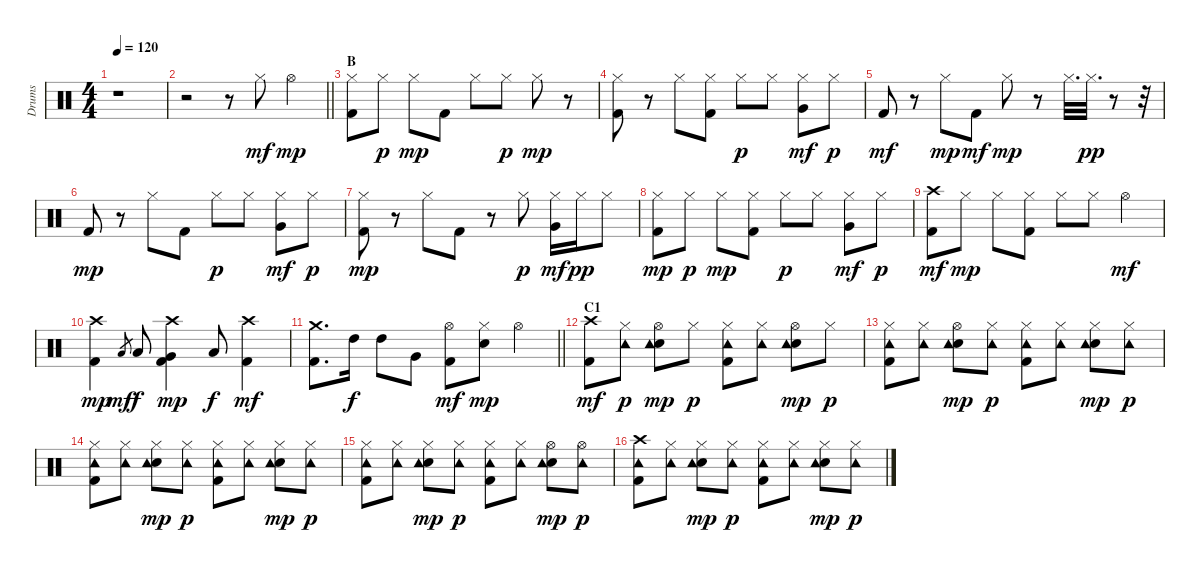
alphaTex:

\track ("Drums" "Drums") {instrument percussion}
\staff {score}
\articulation defaults
\ts (4 4)
\tempo 120
\clef neutral
\ks c
r.1{dy mf} |
\barLineRight lightlight
r.2 r.8 "Hi-Hat (closed)".8 "Hi-Hat (open)".4{dy mp} |
\section ("" "B")
("Hi-Hat (closed)" "Kick (hit) 2").8 "Hi-Hat (closed)".8{dy p} "Hi-Hat (closed)".8{dy mp} "Kick (hit) 2".8 "Hi-Hat (closed)".8 "Hi-Hat (closed)".8{dy p} "Hi-Hat (closed)".8{dy mp} r.8 |
("Hi-Hat (closed)" "Kick (hit) 2").8 r.8 "Hi-Hat (closed)".8 ("Hi-Hat (closed)" "Kick (hit) 2").8 "Hi-Hat (closed)".8{dy p} "Hi-Hat (closed)".8 ("Hi-Hat (closed)" "Very Low Tom (hit)").8{dy mf} "Hi-Hat (closed)".8{dy p} |
"Kick (hit) 2".8{dy mf} r.8 "Hi-Hat (closed)".8{dy mp} "Kick (hit) 2".8{dy mf} "Hi-Hat (closed)".8{dy mp} r.8 "Hi-Hat (closed)".32{d} "Hi-Hat (closed)".32{d dy pp} r.8 r.32 |
"Kick (hit) 2".8{dy mp} r.8 "Hi-Hat (closed)".8 "Kick (hit) 2".8 "Hi-Hat (closed)".8{dy p} "Hi-Hat (closed)".8 ("Hi-Hat (closed)" "Very Low Tom (hit)").8{dy mf} "Hi-Hat (closed)".8{dy p} |
("Hi-Hat (closed)" "Kick (hit) 2").8{dy mp} r.8 "Hi-Hat (closed)".8 "Kick (hit) 2".8 r.8 "Hi-Hat (closed)".8{dy p} ("Hi-Hat (closed)" "Very Low Tom (hit)").16{dy mf} "Hi-Hat (closed)".16{dy pp} "Hi-Hat (closed)".8 |
("Hi-Hat (closed)" "Kick (hit) 2").8{dy mp} "Hi-Hat (closed)".8{dy p} "Hi-Hat (closed)".8{dy mp} ("Hi-Hat (closed)" "Kick (hit) 2").8 "Hi-Hat (closed)".8{dy p} "Hi-Hat (closed)".8 ("Hi-Hat (closed)" "Very Low Tom (hit)").8{dy mf} "Hi-Hat (closed)".8{dy p} |
("Crash high (hit)" "Kick (hit) 2").8{dy mf} "Hi-Hat (closed)".8{dy mp} "Hi-Hat (closed)".8 ("Hi-Hat (closed)" "Kick (hit) 2").8 "Hi-Hat (closed)".8 "Hi-Hat (closed)".8 "Hi-Hat (open)".4{dy mf} |
("Crash high (hit)" "Kick (hit) 2").4{dy mp} "Low Tom (hit)".8{gr dy mf} "Low Tom (hit)".8{dy f} ("Crash high (hit)" "Very Low Tom (hit)" "Kick (hit) 2").4{dy mp} "Low Floor Tom (hit)".8{dy f} ("Crash high (hit)" "Kick (hit) 2").4{dy mf} |
\barLineRight lightlight
("Crash medium (hit)" "Kick (hit) 2").8{d} "High Tom (hit)".16{dy f} "High Tom (hit)".8 "Very Low Tom (hit)".8 ("Hi-Hat (open)" "Kick (hit) 2").8{dy mf} ("Hi-Hat (closed)" "Snare (hit) 2").8{dy mp} "Hi-Hat (open)".4 |
\section ("" "C1")
("Crash high (hit)" "Kick (hit) 2").8{dy mf} ("Hi-Hat (closed)" "Tambourine (hit)").8{dy p} ("Hi-Hat (open)" "Snare (hit) 2" "Tambourine (hit)").8{dy mp} "Hi-Hat (closed)".8{dy p} ("Hi-Hat (closed)" "Kick (hit) 2" "Tambourine (hit)").8 ("Hi-Hat (closed)" "Tambourine (hit)").8 ("Hi-Hat (open)" "Snare (hit) 2" "Tambourine (hit)").8{dy mp} "Hi-Hat (closed)".8{dy p} |
("Hi-Hat (closed)" "Kick (hit) 2" "Tambourine (hit)").8 ("Hi-Hat (closed)" "Tambourine (hit)").8 ("Hi-Hat (open)" "Snare (hit) 2" "Tambourine (hit)").8{dy mp} ("Hi-Hat (closed)" "Tambourine (hit)").8{dy p} ("Hi-Hat (closed)" "Kick (hit) 2" "Tambourine (hit)").8 ("Hi-Hat (closed)" "Tambourine (hit)").8 ("Hi-Hat (closed)" "Snare (hit) 2" "Tambourine (hit)").8{dy mp} ("Hi-Hat (closed)" "Tambourine (hit)").8{dy p} |
("Hi-Hat (closed)" "Kick (hit) 2" "Tambourine (hit)").8 ("Hi-Hat (closed)" "Tambourine (hit)").8 ("Hi-Hat (closed)" "Snare (hit) 2" "Tambourine (hit)").8{dy mp} ("Hi-Hat (closed)" "Tambourine (hit)").8{dy p} ("Hi-Hat (closed)" "Kick (hit) 2" "Tambourine (hit)").8 ("Hi-Hat (closed)" "Tambourine (hit)").8 ("Hi-Hat (closed)" "Snare (hit) 2" "Tambourine (hit)").8{dy mp} ("Hi-Hat (closed)" "Tambourine (hit)").8{dy p} |
("Hi-Hat (closed)" "Kick (hit) 2" "Tambourine (hit)").8 ("Hi-Hat (closed)" "Tambourine (hit)").8 ("Hi-Hat (closed)" "Snare (hit) 2" "Tambourine (hit)").8{dy mp} ("Hi-Hat (closed)" "Tambourine (hit)").8{dy p} ("Hi-Hat (closed)" "Kick (hit) 2" "Tambourine (hit)").8 ("Hi-Hat (closed)" "Tambourine (hit)").8 ("Hi-Hat (open)" "Snare (hit) 2" "Tambourine (hit)").8{dy mp} ("Hi-Hat (open)" "Tambourine (hit)").8{dy p} |
("Crash high (hit)" "Kick (hit) 2" "Tambourine (hit)").8 ("Hi-Hat (closed)" "Tambourine (hit)").8 ("Hi-Hat (closed)" "Snare (hit) 2" "Tambourine (hit)").8{dy mp} ("Hi-Hat (closed)" "Tambourine (hit)").8{dy p} ("Hi-Hat (closed)" "Kick (hit) 2" "Tambourine (hit)").8 ("Hi-Hat (closed)" "Tambourine (hit)").8 ("Hi-Hat (closed)" "Snare (hit) 2" "Tambourine (hit)").8{dy mp} ("Hi-Hat (closed)" "Tambourine (hit)").8{dy p}
